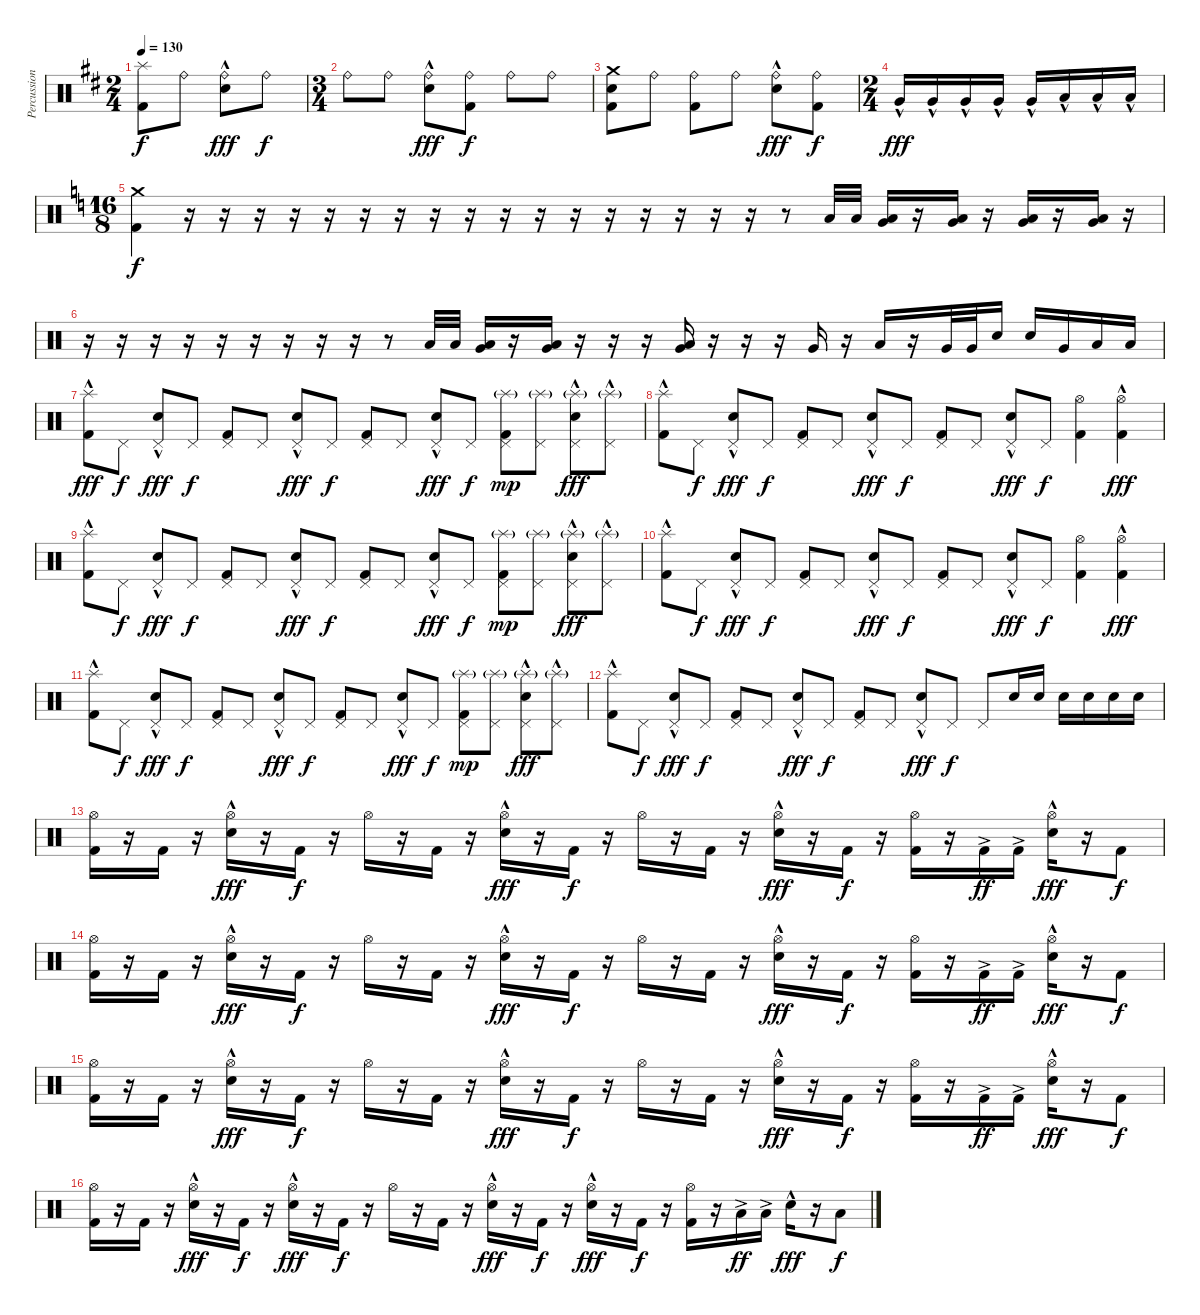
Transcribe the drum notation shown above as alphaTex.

\track ("Percussion" "Percussion") {instrument percussion bank 110}
\staff {score}
\articulation defaults
\ts (2 4)
\tempo 130
\clef neutral
\ks d
("Splash (hit)" "Kick (hit) 2").8{dy f} "Ride (bell)".8 ("Ride (bell)" "Electric Snare (hit)"{hac}).8{dy fff} "Ride (bell)".8{dy f} |
\ts (3 4)
"Ride (bell)".8 "Ride (bell)".8 ("Ride (bell)" "Electric Snare (hit)"{hac}).8{dy fff} ("Ride (bell)" "Kick (hit) 2").8{dy f} "Ride (bell)".8 "Ride (bell)".8 |
("Crash medium (hit)" "Electric Snare (hit)" "Kick (hit) 2").8 "Ride (bell)".8 ("Ride (bell)" "Kick (hit) 2").8 "Ride (bell)".8 ("Ride (bell)" "Electric Snare (hit)"{hac}).8{dy fff} ("Ride (bell)" "Kick (hit) 2").8{dy f} |
\ts (2 4)
"Very Low Tom (hit)"{hac}.16{dy fff} "Very Low Tom (hit)"{hac}.16 "Very Low Tom (hit)"{hac}.16 "Very Low Tom (hit)"{hac}.16 "Very Low Tom (hit)"{hac}.16 "Low Floor Tom (hit)"{hac}.16 "Low Floor Tom (hit)"{hac}.16 "Low Floor Tom (hit)"{hac}.16 |
\ts (16 8)
\ks c
("Crash medium (hit)" "Kick (hit) 2").4{dy f} r.16 r.16 r.16 r.16 r.16 r.16 r.16 r.16 r.16 r.16 r.16 r.16 r.16 r.16 r.16 r.16 r.16 r.8 "Low Floor Tom (hit)".32 "Low Floor Tom (hit)".32 ("Low Tom (hit)" "Very Low Tom (hit)").16 r.16 ("Very Low Tom (hit)" "Low Tom (hit)").16 r.16 ("Low Tom (hit)" "Very Low Tom (hit)").16 r.16 ("Low Tom (hit)" "Very Low Tom (hit)").16 r.16 |
r.16 r.16 r.16 r.16 r.16 r.16 r.16 r.16 r.16 r.8 "Low Floor Tom (hit)".32 "Low Floor Tom (hit)".32 ("Low Tom (hit)" "Very Low Tom (hit)").16 r.16 ("Low Tom (hit)" "Very Low Tom (hit)").16 r.16 r.16 r.16 ("Low Tom (hit)" "Very Low Tom (hit)").16 r.16 r.16 r.16 "Very Low Tom (hit)".16 r.16 "Low Floor Tom (hit)".16 r.16 "Very Low Tom (hit)".32 "Very Low Tom (hit)".32 "Electric Snare (hit)".16 "Electric Snare (hit)".16 "Very Low Tom (hit)".16 "Low Floor Tom (hit)".16 "Low Floor Tom (hit)".16 |
("Splash (hit)"{hac} "Kick (hit) 2").8{dy fff} "Pedal Hi-Hat (hit)".8{dy f} ("Pedal Hi-Hat (hit)"{hac} "Electric Snare (hit)"{hac}).8{dy fff} "Pedal Hi-Hat (hit)".8{dy f} ("Pedal Hi-Hat (hit)" "Kick (hit) 2").8 "Pedal Hi-Hat (hit)".8 ("Pedal Hi-Hat (hit)"{hac} "Electric Snare (hit)"{hac}).8{dy fff} "Pedal Hi-Hat (hit)".8{dy f} ("Pedal Hi-Hat (hit)" "Kick (hit) 2").8 "Pedal Hi-Hat (hit)".8 ("Pedal Hi-Hat (hit)"{hac} "Electric Snare (hit)"{hac}).8{dy fff} "Pedal Hi-Hat (hit)".8{dy f} ("Splash (hit)"{g} "Pedal Hi-Hat (hit)" "Kick (hit) 2").8{dy mp} ("Splash (hit)"{g} "Pedal Hi-Hat (hit)").8 ("Splash (hit)"{g} "Pedal Hi-Hat (hit)" "Electric Snare (hit)"{hac}).8{dy fff} ("Splash (hit)"{g} "Pedal Hi-Hat (hit)"{hac}).8 |
("Splash (hit)"{hac} "Kick (hit) 2").8 "Pedal Hi-Hat (hit)".8{dy f} ("Pedal Hi-Hat (hit)"{hac} "Electric Snare (hit)"{hac}).8{dy fff} "Pedal Hi-Hat (hit)".8{dy f} ("Pedal Hi-Hat (hit)" "Kick (hit) 2").8 "Pedal Hi-Hat (hit)".8 ("Pedal Hi-Hat (hit)"{hac} "Electric Snare (hit)"{hac}).8{dy fff} "Pedal Hi-Hat (hit)".8{dy f} ("Pedal Hi-Hat (hit)" "Kick (hit) 2").8 "Pedal Hi-Hat (hit)".8 ("Pedal Hi-Hat (hit)"{hac} "Electric Snare (hit)"{hac}).8{dy fff} "Pedal Hi-Hat (hit)".8{dy f} ("Hi-Hat (open)" "Kick (hit) 2").4 ("Hi-Hat (open)" "Kick (hit) 2"{hac}).4{dy fff} |
("Splash (hit)"{hac} "Kick (hit) 2").8 "Pedal Hi-Hat (hit)".8{dy f} ("Pedal Hi-Hat (hit)"{hac} "Electric Snare (hit)"{hac}).8{dy fff} "Pedal Hi-Hat (hit)".8{dy f} ("Pedal Hi-Hat (hit)" "Kick (hit) 2").8 "Pedal Hi-Hat (hit)".8 ("Pedal Hi-Hat (hit)"{hac} "Electric Snare (hit)"{hac}).8{dy fff} "Pedal Hi-Hat (hit)".8{dy f} ("Pedal Hi-Hat (hit)" "Kick (hit) 2").8 "Pedal Hi-Hat (hit)".8 ("Pedal Hi-Hat (hit)"{hac} "Electric Snare (hit)"{hac}).8{dy fff} "Pedal Hi-Hat (hit)".8{dy f} ("Splash (hit)"{g} "Pedal Hi-Hat (hit)" "Kick (hit) 2").8{dy mp} ("Splash (hit)"{g} "Pedal Hi-Hat (hit)").8 ("Splash (hit)"{g} "Pedal Hi-Hat (hit)" "Electric Snare (hit)"{hac}).8{dy fff} ("Splash (hit)"{g} "Pedal Hi-Hat (hit)"{hac}).8 |
("Splash (hit)"{hac} "Kick (hit) 2").8 "Pedal Hi-Hat (hit)".8{dy f} ("Pedal Hi-Hat (hit)"{hac} "Electric Snare (hit)"{hac}).8{dy fff} "Pedal Hi-Hat (hit)".8{dy f} ("Pedal Hi-Hat (hit)" "Kick (hit) 2").8 "Pedal Hi-Hat (hit)".8 ("Pedal Hi-Hat (hit)"{hac} "Electric Snare (hit)"{hac}).8{dy fff} "Pedal Hi-Hat (hit)".8{dy f} ("Pedal Hi-Hat (hit)" "Kick (hit) 2").8 "Pedal Hi-Hat (hit)".8 ("Pedal Hi-Hat (hit)"{hac} "Electric Snare (hit)"{hac}).8{dy fff} "Pedal Hi-Hat (hit)".8{dy f} ("Hi-Hat (open)" "Kick (hit) 2").4 ("Hi-Hat (open)" "Kick (hit) 2"{hac}).4{dy fff} |
("Splash (hit)"{hac} "Kick (hit) 2").8 "Pedal Hi-Hat (hit)".8{dy f} ("Pedal Hi-Hat (hit)"{hac} "Electric Snare (hit)"{hac}).8{dy fff} "Pedal Hi-Hat (hit)".8{dy f} ("Pedal Hi-Hat (hit)" "Kick (hit) 2").8 "Pedal Hi-Hat (hit)".8 ("Pedal Hi-Hat (hit)"{hac} "Electric Snare (hit)"{hac}).8{dy fff} "Pedal Hi-Hat (hit)".8{dy f} ("Pedal Hi-Hat (hit)" "Kick (hit) 2").8 "Pedal Hi-Hat (hit)".8 ("Pedal Hi-Hat (hit)"{hac} "Electric Snare (hit)"{hac}).8{dy fff} "Pedal Hi-Hat (hit)".8{dy f} ("Splash (hit)"{g} "Pedal Hi-Hat (hit)" "Kick (hit) 2").8{dy mp} ("Splash (hit)"{g} "Pedal Hi-Hat (hit)").8 ("Splash (hit)"{g} "Pedal Hi-Hat (hit)" "Electric Snare (hit)"{hac}).8{dy fff} ("Splash (hit)"{g} "Pedal Hi-Hat (hit)"{hac}).8 |
("Splash (hit)"{hac} "Kick (hit) 2").8 "Pedal Hi-Hat (hit)".8{dy f} ("Pedal Hi-Hat (hit)"{hac} "Electric Snare (hit)"{hac}).8{dy fff} "Pedal Hi-Hat (hit)".8{dy f} ("Pedal Hi-Hat (hit)" "Kick (hit) 2").8 "Pedal Hi-Hat (hit)".8 ("Pedal Hi-Hat (hit)"{hac} "Electric Snare (hit)"{hac}).8{dy fff} "Pedal Hi-Hat (hit)".8{dy f} ("Pedal Hi-Hat (hit)" "Kick (hit) 2").8 "Pedal Hi-Hat (hit)".8 ("Pedal Hi-Hat (hit)"{hac} "Electric Snare (hit)"{hac}).8{dy fff} "Pedal Hi-Hat (hit)".8{dy f} "Pedal Hi-Hat (hit)".8 "Electric Snare (hit)".16 "Electric Snare (hit)".16 "Electric Snare (hit)".16 "Electric Snare (hit)".16 "Electric Snare (hit)".16 "Electric Snare (hit)".16 |
("Hi-Hat (open)" "Kick (hit) 2").16 r.16 "Kick (hit) 2".16 r.16 ("Hi-Hat (open)" "Electric Snare (hit)"{hac}).16{dy fff} r.16 "Kick (hit) 2".16{dy f} r.16 "Hi-Hat (open)".16 r.16 "Kick (hit) 2".16 r.16 ("Hi-Hat (open)" "Electric Snare (hit)"{hac}).16{dy fff} r.16 "Kick (hit) 2".16{dy f} r.16 "Hi-Hat (open)".16 r.16 "Kick (hit) 2".16 r.16 ("Hi-Hat (open)" "Electric Snare (hit)"{hac}).16{dy fff} r.16 "Kick (hit) 2".16{dy f} r.16 ("Hi-Hat (open)" "Kick (hit) 2").16 r.16 "Kick (hit) 2"{ac}.16{dy ff} "Kick (hit) 2"{ac}.16 ("Hi-Hat (open)" "Electric Snare (hit)"{hac}).16{dy fff} r.16 "Kick (hit) 2".8{dy f} |
("Hi-Hat (open)" "Kick (hit) 2").16 r.16 "Kick (hit) 2".16 r.16 ("Hi-Hat (open)" "Electric Snare (hit)"{hac}).16{dy fff} r.16 "Kick (hit) 2".16{dy f} r.16 "Hi-Hat (open)".16 r.16 "Kick (hit) 2".16 r.16 ("Hi-Hat (open)" "Electric Snare (hit)"{hac}).16{dy fff} r.16 "Kick (hit) 2".16{dy f} r.16 "Hi-Hat (open)".16 r.16 "Kick (hit) 2".16 r.16 ("Hi-Hat (open)" "Electric Snare (hit)"{hac}).16{dy fff} r.16 "Kick (hit) 2".16{dy f} r.16 ("Hi-Hat (open)" "Kick (hit) 2").16 r.16 "Kick (hit) 2"{ac}.16{dy ff} "Kick (hit) 2"{ac}.16 ("Hi-Hat (open)" "Electric Snare (hit)"{hac}).16{dy fff} r.16 "Kick (hit) 2".8{dy f} |
("Hi-Hat (open)" "Kick (hit) 2").16 r.16 "Kick (hit) 2".16 r.16 ("Hi-Hat (open)" "Electric Snare (hit)"{hac}).16{dy fff} r.16 "Kick (hit) 2".16{dy f} r.16 "Hi-Hat (open)".16 r.16 "Kick (hit) 2".16 r.16 ("Hi-Hat (open)" "Electric Snare (hit)"{hac}).16{dy fff} r.16 "Kick (hit) 2".16{dy f} r.16 "Hi-Hat (open)".16 r.16 "Kick (hit) 2".16 r.16 ("Hi-Hat (open)" "Electric Snare (hit)"{hac}).16{dy fff} r.16 "Kick (hit) 2".16{dy f} r.16 ("Hi-Hat (open)" "Kick (hit) 2").16 r.16 "Kick (hit) 2"{ac}.16{dy ff} "Kick (hit) 2"{ac}.16 ("Hi-Hat (open)" "Electric Snare (hit)"{hac}).16{dy fff} r.16 "Kick (hit) 2".8{dy f} |
("Hi-Hat (open)" "Kick (hit) 2").16 r.16 "Kick (hit) 2".16 r.16 ("Hi-Hat (open)" "Electric Snare (hit)"{hac}).16{dy fff} r.16 "Kick (hit) 2".16{dy f} r.16 ("Hi-Hat (open)" "Electric Snare (hit)"{hac}).16{dy fff} r.16 "Kick (hit) 2".16{dy f} r.16 "Hi-Hat (open)".16 r.16 "Kick (hit) 2".16 r.16 ("Hi-Hat (open)" "Electric Snare (hit)"{hac}).16{dy fff} r.16 "Kick (hit) 2".16{dy f} r.16 ("Hi-Hat (open)" "Electric Snare (hit)"{hac}).16{dy fff} r.16 "Kick (hit) 2".16{dy f} r.16 ("Hi-Hat (open)" "Kick (hit) 2").16 r.16 "Low Floor Tom (hit)"{ac}.16{dy ff} "Low Floor Tom (hit)"{ac}.16 "Electric Snare (hit)"{hac}.16{dy fff} r.16 "Low Floor Tom (hit)".8{dy f}
